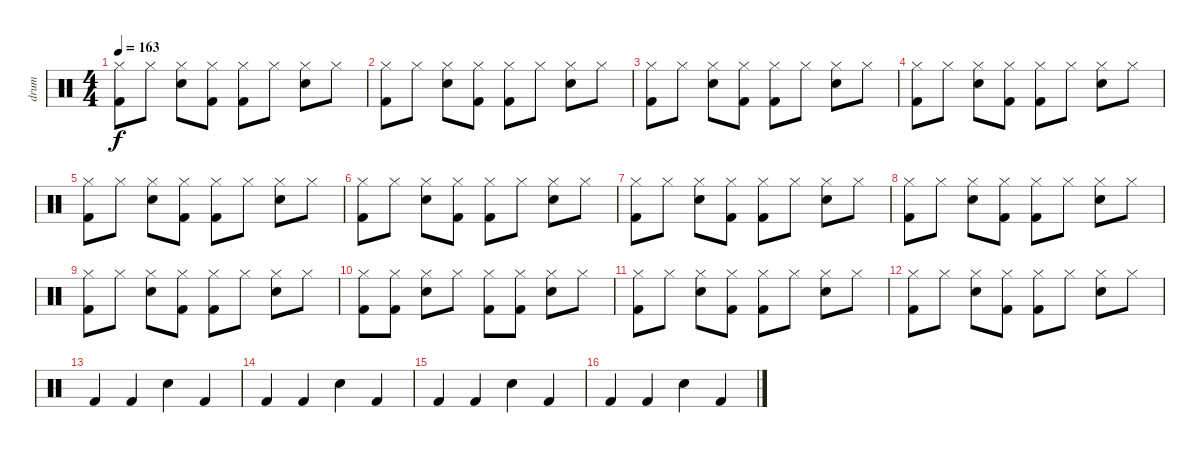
\track ("drum" "drum") {instrument percussion}
\staff {score}
\articulation defaults
\ts (4 4)
\tempo 163
\clef neutral
\ks c
("Hi-Hat (closed)" "Kick (hit) 2").8{dy f} "Hi-Hat (closed)".8 ("Hi-Hat (closed)" "Electric Snare (hit)").8 ("Hi-Hat (closed)" "Kick (hit) 2").8 ("Hi-Hat (closed)" "Kick (hit) 2").8 "Hi-Hat (closed)".8 ("Hi-Hat (closed)" "Electric Snare (hit)").8 "Hi-Hat (closed)".8 |
("Hi-Hat (closed)" "Kick (hit) 2").8 "Hi-Hat (closed)".8 ("Hi-Hat (closed)" "Electric Snare (hit)").8 ("Hi-Hat (closed)" "Kick (hit) 2").8 ("Hi-Hat (closed)" "Kick (hit) 2").8 "Hi-Hat (closed)".8 ("Hi-Hat (closed)" "Electric Snare (hit)").8 "Hi-Hat (closed)".8 |
("Hi-Hat (closed)" "Kick (hit) 2").8 "Hi-Hat (closed)".8 ("Hi-Hat (closed)" "Electric Snare (hit)").8 ("Hi-Hat (closed)" "Kick (hit) 2").8 ("Hi-Hat (closed)" "Kick (hit) 2").8 "Hi-Hat (closed)".8 ("Hi-Hat (closed)" "Electric Snare (hit)").8 "Hi-Hat (closed)".8 |
("Hi-Hat (closed)" "Kick (hit) 2").8 "Hi-Hat (closed)".8 ("Hi-Hat (closed)" "Electric Snare (hit)").8 ("Hi-Hat (closed)" "Kick (hit) 2").8 ("Hi-Hat (closed)" "Kick (hit) 2").8 "Hi-Hat (closed)".8 ("Hi-Hat (closed)" "Electric Snare (hit)").8 "Hi-Hat (closed)".8 |
("Hi-Hat (closed)" "Kick (hit) 2").8 "Hi-Hat (closed)".8 ("Hi-Hat (closed)" "Electric Snare (hit)").8 ("Hi-Hat (closed)" "Kick (hit) 2").8 ("Hi-Hat (closed)" "Kick (hit) 2").8 "Hi-Hat (closed)".8 ("Hi-Hat (closed)" "Electric Snare (hit)").8 "Hi-Hat (closed)".8 |
("Hi-Hat (closed)" "Kick (hit) 2").8 "Hi-Hat (closed)".8 ("Hi-Hat (closed)" "Electric Snare (hit)").8 ("Hi-Hat (closed)" "Kick (hit) 2").8 ("Hi-Hat (closed)" "Kick (hit) 2").8 "Hi-Hat (closed)".8 ("Hi-Hat (closed)" "Electric Snare (hit)").8 "Hi-Hat (closed)".8 |
("Hi-Hat (closed)" "Kick (hit) 2").8 "Hi-Hat (closed)".8 ("Hi-Hat (closed)" "Electric Snare (hit)").8 ("Hi-Hat (closed)" "Kick (hit) 2").8 ("Hi-Hat (closed)" "Kick (hit) 2").8 "Hi-Hat (closed)".8 ("Hi-Hat (closed)" "Electric Snare (hit)").8 "Hi-Hat (closed)".8 |
("Hi-Hat (closed)" "Kick (hit) 2").8 "Hi-Hat (closed)".8 ("Hi-Hat (closed)" "Electric Snare (hit)").8 ("Hi-Hat (closed)" "Kick (hit) 2").8 ("Hi-Hat (closed)" "Kick (hit) 2").8 "Hi-Hat (closed)".8 ("Hi-Hat (closed)" "Electric Snare (hit)").8 "Hi-Hat (closed)".8 |
("Hi-Hat (closed)" "Kick (hit) 2").8 "Hi-Hat (closed)".8 ("Hi-Hat (closed)" "Electric Snare (hit)").8 ("Hi-Hat (closed)" "Kick (hit) 2").8 ("Hi-Hat (closed)" "Kick (hit) 2").8 "Hi-Hat (closed)".8 ("Hi-Hat (closed)" "Electric Snare (hit)").8 "Hi-Hat (closed)".8 |
("Hi-Hat (closed)" "Kick (hit) 2").8 ("Hi-Hat (closed)" "Kick (hit) 2").8 ("Hi-Hat (closed)" "Electric Snare (hit)").8 "Hi-Hat (closed)".8 ("Hi-Hat (closed)" "Kick (hit) 2").8 ("Hi-Hat (closed)" "Kick (hit) 2").8 ("Hi-Hat (closed)" "Electric Snare (hit)").8 "Hi-Hat (closed)".8 |
("Hi-Hat (closed)" "Kick (hit) 2").8 "Hi-Hat (closed)".8 ("Hi-Hat (closed)" "Electric Snare (hit)").8 ("Hi-Hat (closed)" "Kick (hit) 2").8 ("Hi-Hat (closed)" "Kick (hit) 2").8 "Hi-Hat (closed)".8 ("Hi-Hat (closed)" "Electric Snare (hit)").8 "Hi-Hat (closed)".8 |
("Hi-Hat (closed)" "Kick (hit) 2").8 "Hi-Hat (closed)".8 ("Hi-Hat (closed)" "Electric Snare (hit)").8 ("Hi-Hat (closed)" "Kick (hit) 2").8 ("Hi-Hat (closed)" "Kick (hit) 2").8 "Hi-Hat (closed)".8 ("Hi-Hat (closed)" "Electric Snare (hit)").8 "Hi-Hat (closed)".8 |
"Kick (hit) 2".4 "Kick (hit) 2".4 "Electric Snare (hit)".4 "Kick (hit) 2".4 |
"Kick (hit) 2".4 "Kick (hit) 2".4 "Electric Snare (hit)".4 "Kick (hit) 2".4 |
"Kick (hit) 2".4 "Kick (hit) 2".4 "Electric Snare (hit)".4 "Kick (hit) 2".4 |
"Kick (hit) 2".4 "Kick (hit) 2".4 "Electric Snare (hit)".4 "Kick (hit) 2".4
